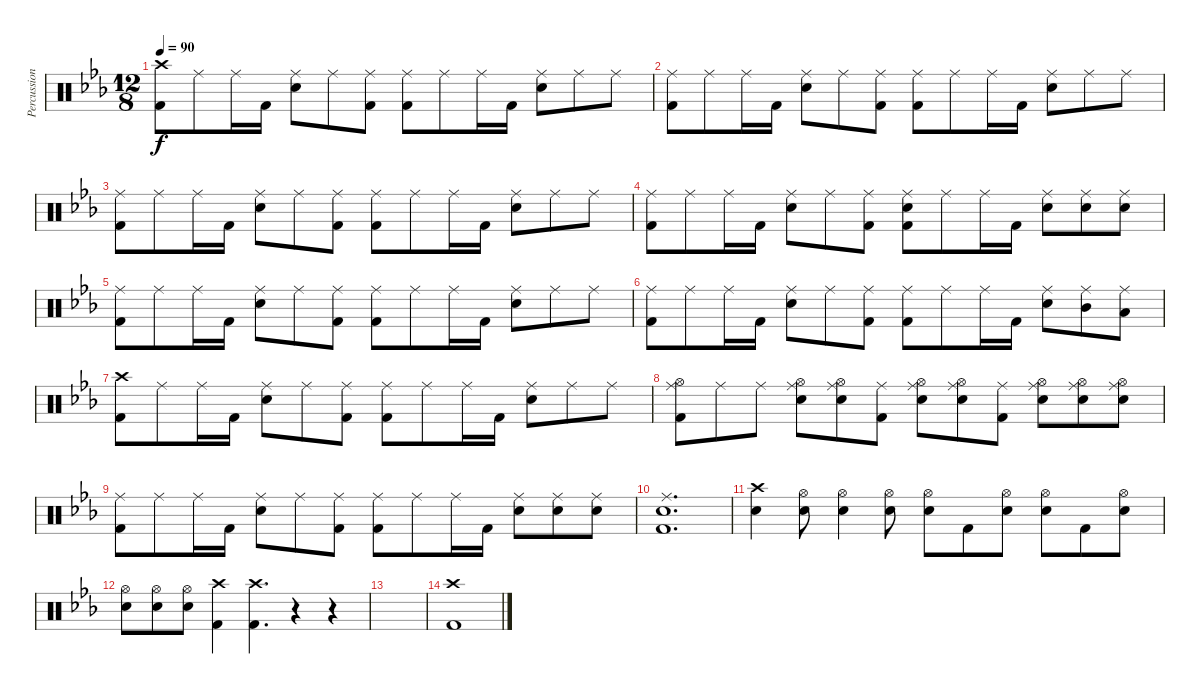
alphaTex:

\track ("Percussion" "Percussion") {instrument percussion}
\staff {score}
\articulation defaults
\ts (12 8)
\tempo 90
\clef neutral
\ks eb
("Crash high (hit)" "Kick (hit) 2").8{dy f} "Ride (middle)".8 "Ride (middle)".16 "Kick (hit) 2".16 ("Ride (middle)" "Snare (hit) 2").8 "Ride (middle)".8 ("Ride (middle)" "Kick (hit) 2").8 ("Ride (middle)" "Kick (hit) 2").8 "Ride (middle)".8 "Ride (middle)".16 "Kick (hit) 2".16 ("Ride (middle)" "Snare (hit) 2").8 "Ride (middle)".8 "Ride (middle)".8 |
("Ride (middle)" "Kick (hit) 2").8 "Ride (middle)".8 "Ride (middle)".16 "Kick (hit) 2".16 ("Ride (middle)" "Snare (hit) 2").8 "Ride (middle)".8 ("Ride (middle)" "Kick (hit) 2").8 ("Ride (middle)" "Kick (hit) 2").8 "Ride (middle)".8 "Ride (middle)".16 "Kick (hit) 2".16 ("Ride (middle)" "Snare (hit) 2").8 "Ride (middle)".8 "Ride (middle)".8 |
("Ride (middle)" "Kick (hit) 2").8 "Ride (middle)".8 "Ride (middle)".16 "Kick (hit) 2".16 ("Ride (middle)" "Snare (hit) 2").8 "Ride (middle)".8 ("Ride (middle)" "Kick (hit) 2").8 ("Ride (middle)" "Kick (hit) 2").8 "Ride (middle)".8 "Ride (middle)".16 "Kick (hit) 2".16 ("Ride (middle)" "Snare (hit) 2").8 "Ride (middle)".8 "Ride (middle)".8 |
("Ride (middle)" "Kick (hit) 2").8 "Ride (middle)".8 "Ride (middle)".16 "Kick (hit) 2".16 ("Ride (middle)" "Snare (hit) 2").8 "Ride (middle)".8 ("Ride (middle)" "Kick (hit) 2").8 ("Ride (middle)" "Snare (hit) 2" "Kick (hit) 2").8 "Ride (middle)".8 "Ride (middle)".16 "Kick (hit) 2".16 ("Ride (middle)" "Snare (hit) 2").8 ("Ride (middle)" "Snare (hit) 2").8 ("Ride (middle)" "Snare (hit) 2").8 |
("Ride (middle)" "Kick (hit) 2").8 "Ride (middle)".8 "Ride (middle)".16 "Kick (hit) 2".16 ("Ride (middle)" "Snare (hit) 2").8 "Ride (middle)".8 ("Ride (middle)" "Kick (hit) 2").8 ("Ride (middle)" "Kick (hit) 2").8 "Ride (middle)".8 "Ride (middle)".16 "Kick (hit) 2".16 ("Ride (middle)" "Snare (hit) 2").8 "Ride (middle)".8 "Ride (middle)".8 |
("Ride (middle)" "Kick (hit) 2").8 "Ride (middle)".8 "Ride (middle)".16 "Kick (hit) 2".16 ("Ride (middle)" "Snare (hit) 2").8 "Ride (middle)".8 ("Ride (middle)" "Kick (hit) 2").8 ("Ride (middle)" "Kick (hit) 2").8 "Ride (middle)".8 "Ride (middle)".16 "Kick (hit) 2".16 ("Ride (middle)" "Snare (hit) 2").8 ("Ride (middle)" "Mid Tom (hit)").8 ("Ride (middle)" "Low Floor Tom (hit)").8 |
("Crash high (hit)" "Kick (hit) 2").8 "Ride (middle)".8 "Ride (middle)".16 "Kick (hit) 2".16 ("Ride (middle)" "Snare (hit) 2").8 "Ride (middle)".8 ("Ride (middle)" "Kick (hit) 2").8 ("Ride (middle)" "Kick (hit) 2").8 "Ride (middle)".8 "Ride (middle)".16 "Kick (hit) 2".16 ("Ride (middle)" "Snare (hit) 2").8 "Ride (middle)".8 "Ride (middle)".8 |
("Hi-Hat (open)" "Ride (middle)" "Kick (hit) 2").8 "Ride (middle)".8 "Ride (middle)".8 ("Hi-Hat (open)" "Ride (middle)" "Snare (hit) 2").8 ("Hi-Hat (open)" "Ride (middle)" "Snare (hit) 2").8 ("Ride (middle)" "Kick (hit) 2").8 ("Hi-Hat (open)" "Ride (middle)" "Snare (hit) 2").8 ("Hi-Hat (open)" "Ride (middle)" "Snare (hit) 2").8 ("Ride (middle)" "Kick (hit) 2").8 ("Hi-Hat (open)" "Ride (middle)" "Snare (hit) 2").8 ("Hi-Hat (open)" "Ride (middle)" "Snare (hit) 2").8 ("Hi-Hat (open)" "Ride (middle)" "Snare (hit) 2").8 |
("Ride (middle)" "Kick (hit) 2").8 "Ride (middle)".8 "Ride (middle)".16 "Kick (hit) 2".16 ("Ride (middle)" "Snare (hit) 2").8 "Ride (middle)".8 ("Ride (middle)" "Kick (hit) 2").8 ("Ride (middle)" "Kick (hit) 2").8 "Ride (middle)".8 "Ride (middle)".16 "Kick (hit) 2".16 ("Ride (middle)" "Snare (hit) 2").8 ("Ride (middle)" "Snare (hit) 2").8 ("Ride (middle)" "Snare (hit) 2").8 |
("Ride (middle)" "Snare (hit) 2" "Kick (hit) 2").1{d} |
("Crash high (hit)" "Snare (hit) 2").4 ("Hi-Hat (open)" "Snare (hit) 2").8 ("Hi-Hat (open)" "Snare (hit) 2").4 ("Hi-Hat (open)" "Snare (hit) 2").8 ("Hi-Hat (open)" "Snare (hit) 2").8 "Kick (hit) 2".8 ("Hi-Hat (open)" "Snare (hit) 2").8 ("Hi-Hat (open)" "Snare (hit) 2").8 "Kick (hit) 2".8 ("Hi-Hat (open)" "Snare (hit) 2").8 |
("Hi-Hat (open)" "Snare (hit) 2").8 ("Hi-Hat (open)" "Snare (hit) 2").8 ("Hi-Hat (open)" "Snare (hit) 2").8 ("Crash high (hit)" "Kick (hit) 2").4 ("Crash high (hit)" "Kick (hit) 2").4{d} r.4 r.4 |
|
("Crash high (hit)" "Kick (hit) 2").1
